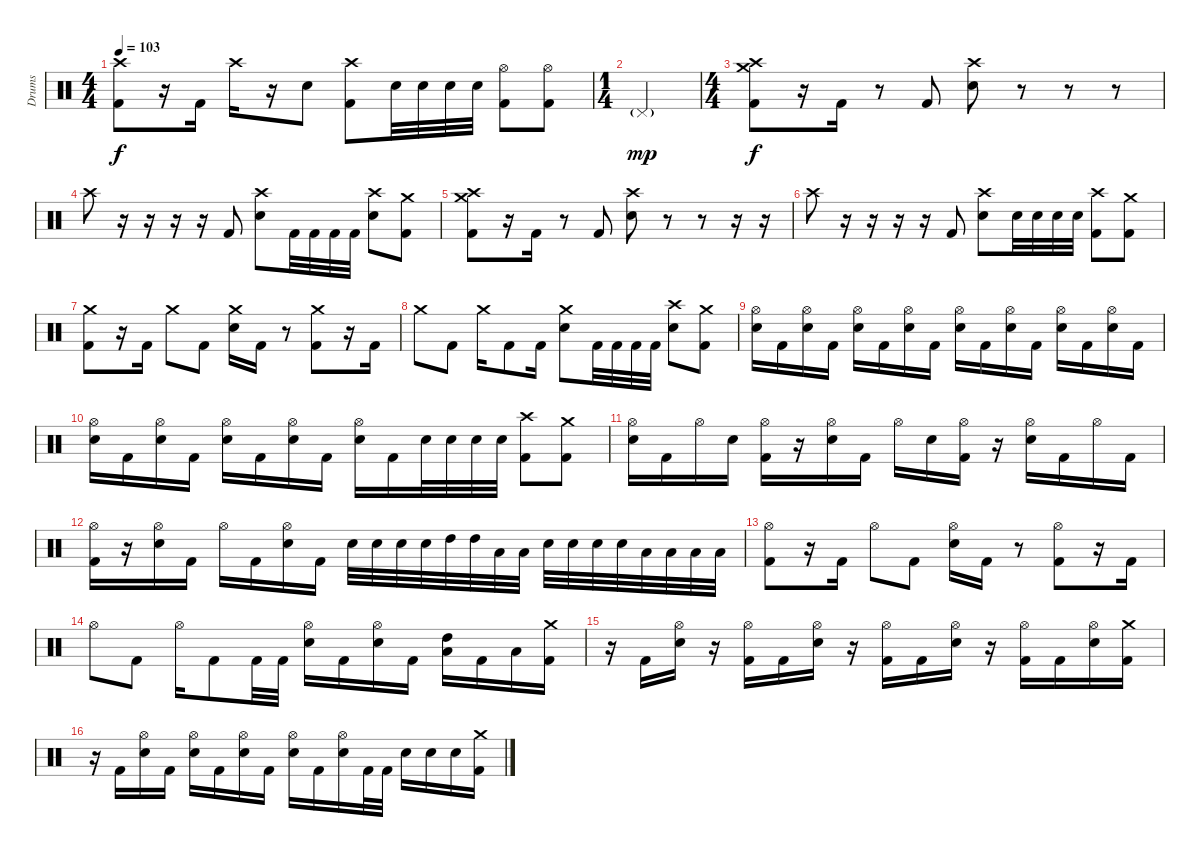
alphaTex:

\track ("Drums" "Drums") {instrument percussion}
\staff {score}
\articulation defaults
\ts (4 4)
\tempo 103
\clef neutral
\ks c
("Crash high (hit)" "Kick (hit) 2").8{dy f} r.16 "Kick (hit) 2".16 "Crash high (hit)".16 r.16 "Electric Snare (hit)".8 ("Crash high (hit)" "Kick (hit) 2").8 "Electric Snare (hit)".32 "Electric Snare (hit)".32 "Electric Snare (hit)".32 "Electric Snare (hit)".32 ("Hi-Hat (open)" "Kick (hit) 2").8 ("Hi-Hat (open)" "Kick (hit) 2").8 |
\ts (1 4)
"Pedal Hi-Hat (hit)"{g}.4{dy mp} |
\ts (4 4)
("Crash medium (hit)" "Crash high (hit)" "Kick (hit) 2").8{dy f} r.16 "Kick (hit) 2".16 r.8 "Kick (hit) 2".8 ("Crash high (hit)" "Electric Snare (hit)").8 r.8 r.8 r.8 |
"Crash high (hit)".8 r.16 r.16 r.16 r.16 "Kick (hit) 2".8 ("Crash high (hit)" "Electric Snare (hit)").8 "Kick (hit) 2".32 "Kick (hit) 2".32 "Kick (hit) 2".32 "Kick (hit) 2".32 ("Crash high (hit)" "Electric Snare (hit)").8 ("Crash medium (hit)" "Kick (hit) 2").8 |
("Crash medium (hit)" "Crash high (hit)" "Kick (hit) 2").8 r.16 "Kick (hit) 2".16 r.8 "Kick (hit) 2".8 ("Crash high (hit)" "Electric Snare (hit)").8 r.8 r.8 r.16 r.16 |
"Crash high (hit)".8 r.16 r.16 r.16 r.16 "Kick (hit) 2".8 ("Crash high (hit)" "Electric Snare (hit)").8 "Electric Snare (hit)".32 "Electric Snare (hit)".32 "Electric Snare (hit)".32 "Electric Snare (hit)".32 ("Crash high (hit)" "Kick (hit) 2").8 ("Crash medium (hit)" "Kick (hit) 2").8 |
("Crash medium (hit)" "Kick (hit) 2").8 r.16 "Kick (hit) 2".16 "Crash medium (hit)".8 "Kick (hit) 2".8 ("Crash medium (hit)" "Electric Snare (hit)").16 "Kick (hit) 2".16 r.8 ("Crash medium (hit)" "Kick (hit) 2").8 r.16 "Kick (hit) 2".16 |
"Crash medium (hit)".8 "Kick (hit) 2".8 "Crash medium (hit)".16 "Kick (hit) 2".8 "Kick (hit) 2".16 ("Crash medium (hit)" "Electric Snare (hit)").8 "Kick (hit) 2".32 "Kick (hit) 2".32 "Kick (hit) 2".32 "Kick (hit) 2".32 ("Crash high (hit)" "Electric Snare (hit)").8 ("Crash medium (hit)" "Kick (hit) 2").8 |
("Hi-Hat (open)" "Electric Snare (hit)").16 "Kick (hit) 2".16 ("Hi-Hat (open)" "Electric Snare (hit)").16 "Kick (hit) 2".16 ("Hi-Hat (open)" "Electric Snare (hit)").16 "Kick (hit) 2".16 ("Hi-Hat (open)" "Electric Snare (hit)").16 "Kick (hit) 2".16 ("Hi-Hat (open)" "Electric Snare (hit)").16 "Kick (hit) 2".16 ("Hi-Hat (open)" "Electric Snare (hit)").16 "Kick (hit) 2".16 ("Hi-Hat (open)" "Electric Snare (hit)").16 "Kick (hit) 2".16 ("Hi-Hat (open)" "Electric Snare (hit)").16 "Kick (hit) 2".16 |
("Hi-Hat (open)" "Electric Snare (hit)").16 "Kick (hit) 2".16 ("Hi-Hat (open)" "Electric Snare (hit)").16 "Kick (hit) 2".16 ("Hi-Hat (open)" "Electric Snare (hit)").16 "Kick (hit) 2".16 ("Hi-Hat (open)" "Electric Snare (hit)").16 "Kick (hit) 2".16 ("Hi-Hat (open)" "Electric Snare (hit)").16 "Kick (hit) 2".16 "Electric Snare (hit)".32 "Electric Snare (hit)".32 "Electric Snare (hit)".32 "Electric Snare (hit)".32 ("Crash high (hit)" "Kick (hit) 2").8 ("Crash medium (hit)" "Kick (hit) 2").8 |
("Hi-Hat (open)" "Electric Snare (hit)").16 "Kick (hit) 2".16 "Hi-Hat (open)".16 "Electric Snare (hit)".16 ("Hi-Hat (open)" "Kick (hit) 2").16 r.16 ("Hi-Hat (open)" "Electric Snare (hit)").16 "Kick (hit) 2".16 "Hi-Hat (open)".16 "Electric Snare (hit)".16 ("Hi-Hat (open)" "Kick (hit) 2").16 r.16 ("Hi-Hat (open)" "Electric Snare (hit)").16 "Kick (hit) 2".16 "Hi-Hat (open)".16 "Kick (hit) 2".16 |
("Hi-Hat (open)" "Kick (hit) 2").16 r.16 ("Hi-Hat (open)" "Electric Snare (hit)").16 "Kick (hit) 2".16 "Hi-Hat (open)".16 "Kick (hit) 2".16 ("Hi-Hat (open)" "Electric Snare (hit)").16 "Kick (hit) 2".16 "Electric Snare (hit)".32 "Electric Snare (hit)".32 "Electric Snare (hit)".32 "Electric Snare (hit)".32 "High Tom (hit)".32 "High Tom (hit)".32 "Low Tom (hit)".32 "Low Tom (hit)".32 "Electric Snare (hit)".32 "Electric Snare (hit)".32 "Electric Snare (hit)".32 "Electric Snare (hit)".32 "Low Tom (hit)".32 "Low Tom (hit)".32 "Low Floor Tom (hit)".32 "Low Floor Tom (hit)".32 |
("Hi-Hat (open)" "Kick (hit) 2").8 r.16 "Kick (hit) 2".16 "Hi-Hat (open)".8 "Kick (hit) 2".8 ("Hi-Hat (open)" "Electric Snare (hit)").16 "Kick (hit) 2".16 r.8 ("Hi-Hat (open)" "Kick (hit) 2").8 r.16 "Kick (hit) 2".16 |
"Hi-Hat (open)".8 "Kick (hit) 2".8 "Hi-Hat (open)".16 "Kick (hit) 2".8 "Kick (hit) 2".32 "Kick (hit) 2".32 ("Hi-Hat (open)" "Electric Snare (hit)").16 "Kick (hit) 2".16 ("Hi-Hat (open)" "Electric Snare (hit)").16 "Kick (hit) 2".16 ("High Tom (hit)" "Low Tom (hit)").16 "Kick (hit) 2".16 "Low Floor Tom (hit)".16 ("Crash medium (hit)" "Kick (hit) 2").16 |
r.16 "Kick (hit) 2".16 ("Hi-Hat (open)" "Electric Snare (hit)").16 r.16 ("Hi-Hat (open)" "Kick (hit) 2").16 "Kick (hit) 2".16 ("Hi-Hat (open)" "Electric Snare (hit)").16 r.16 ("Hi-Hat (open)" "Kick (hit) 2").16 "Kick (hit) 2".16 ("Hi-Hat (open)" "Electric Snare (hit)").16 r.16 ("Hi-Hat (open)" "Kick (hit) 2").16 "Kick (hit) 2".16 ("Hi-Hat (open)" "Electric Snare (hit)").16 ("Crash medium (hit)" "Kick (hit) 2").16 |
r.16 "Kick (hit) 2".16 ("Hi-Hat (open)" "Electric Snare (hit)").16 "Kick (hit) 2".16 ("Hi-Hat (open)" "Electric Snare (hit)").16 "Kick (hit) 2".16 ("Hi-Hat (open)" "Electric Snare (hit)").16 "Kick (hit) 2".16 ("Hi-Hat (open)" "Electric Snare (hit)").16 "Kick (hit) 2".16 ("Hi-Hat (open)" "Electric Snare (hit)").16 "Kick (hit) 2".32 "Kick (hit) 2".32 "Electric Snare (hit)".16 "Electric Snare (hit)".16 "Electric Snare (hit)".16 ("Crash medium (hit)" "Kick (hit) 2").16
